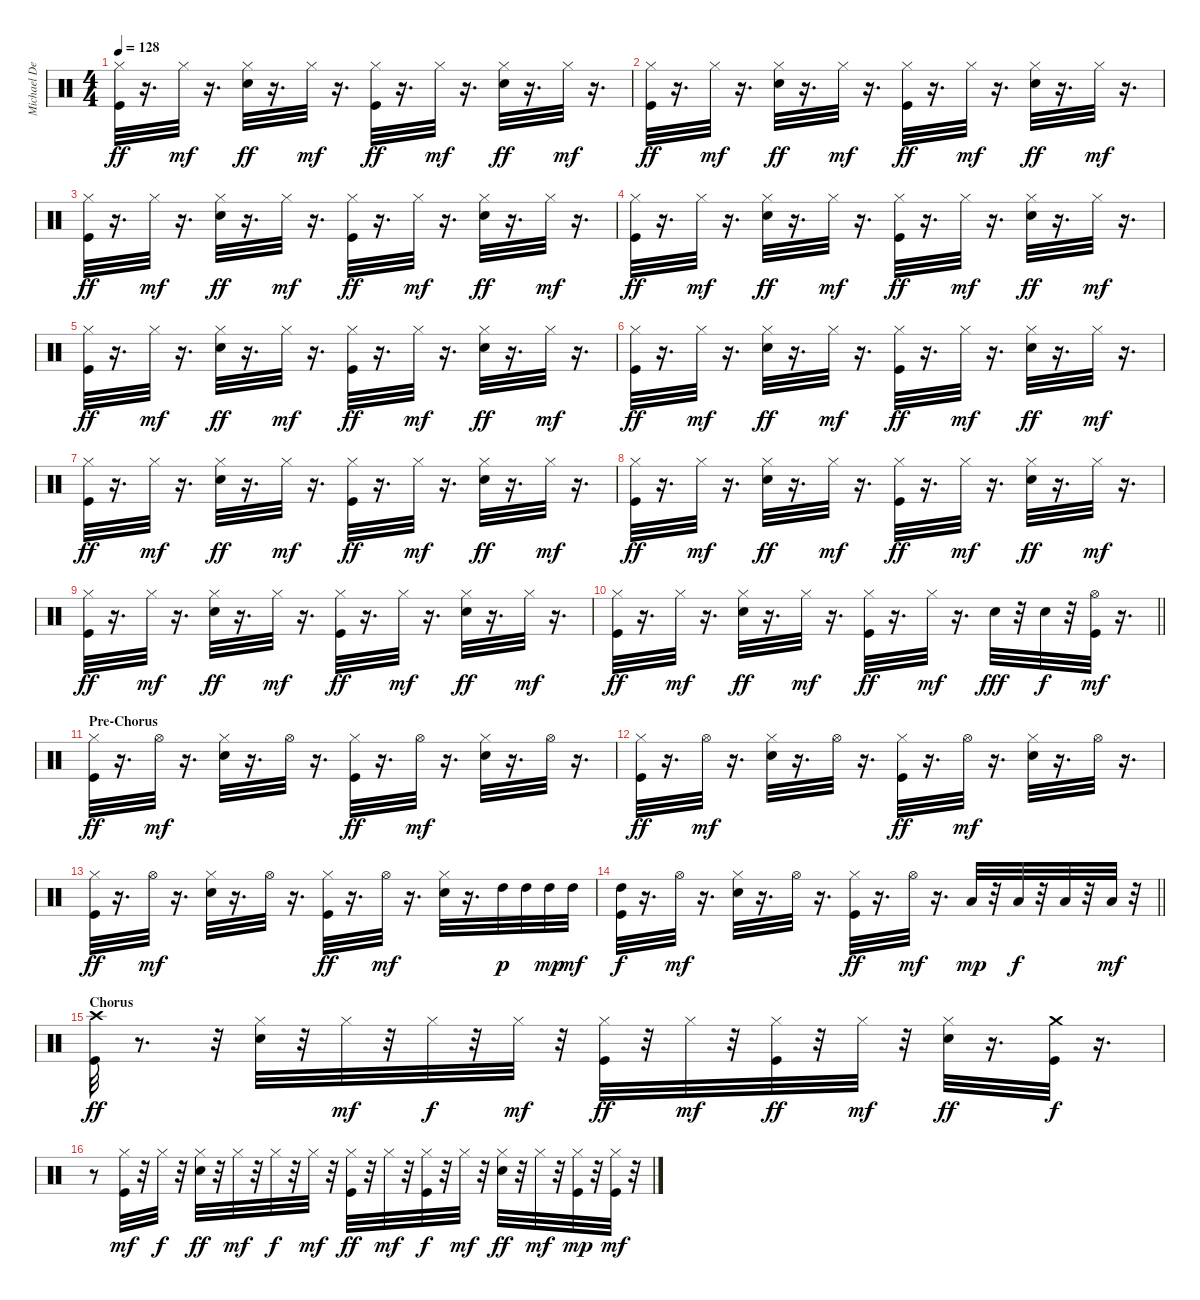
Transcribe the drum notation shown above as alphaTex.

\track ("Michael DeRosier" "Michael De") {instrument percussion}
\staff {score}
\articulation defaults
\ts (4 4)
\tempo 128
\clef neutral
\ks c
("Hi-Hat (closed)" "Kick (hit)").32{dy ff} r.16{d} "Hi-Hat (closed)".32{dy mf} r.16{d} ("Snare (hit) 2" "Hi-Hat (closed)").32{dy ff} r.16{d} "Hi-Hat (closed)".32{dy mf} r.16{d} ("Hi-Hat (closed)" "Kick (hit)").32{dy ff} r.16{d} "Hi-Hat (closed)".32{dy mf} r.16{d} ("Snare (hit) 2" "Hi-Hat (closed)").32{dy ff} r.16{d} "Hi-Hat (closed)".32{dy mf} r.16{d} |
("Hi-Hat (closed)" "Kick (hit)").32{dy ff} r.16{d} "Hi-Hat (closed)".32{dy mf} r.16{d} ("Snare (hit) 2" "Hi-Hat (closed)").32{dy ff} r.16{d} "Hi-Hat (closed)".32{dy mf} r.16{d} ("Hi-Hat (closed)" "Kick (hit)").32{dy ff} r.16{d} "Hi-Hat (closed)".32{dy mf} r.16{d} ("Snare (hit) 2" "Hi-Hat (closed)").32{dy ff} r.16{d} "Hi-Hat (closed)".32{dy mf} r.16{d} |
("Hi-Hat (closed)" "Kick (hit)").32{dy ff} r.16{d} "Hi-Hat (closed)".32{dy mf} r.16{d} ("Snare (hit) 2" "Hi-Hat (closed)").32{dy ff} r.16{d} "Hi-Hat (closed)".32{dy mf} r.16{d} ("Hi-Hat (closed)" "Kick (hit)").32{dy ff} r.16{d} "Hi-Hat (closed)".32{dy mf} r.16{d} ("Snare (hit) 2" "Hi-Hat (closed)").32{dy ff} r.16{d} "Hi-Hat (closed)".32{dy mf} r.16{d} |
("Hi-Hat (closed)" "Kick (hit)").32{dy ff} r.16{d} "Hi-Hat (closed)".32{dy mf} r.16{d} ("Snare (hit) 2" "Hi-Hat (closed)").32{dy ff} r.16{d} "Hi-Hat (closed)".32{dy mf} r.16{d} ("Hi-Hat (closed)" "Kick (hit)").32{dy ff} r.16{d} "Hi-Hat (closed)".32{dy mf} r.16{d} ("Snare (hit) 2" "Hi-Hat (closed)").32{dy ff} r.16{d} "Hi-Hat (closed)".32{dy mf} r.16{d} |
("Hi-Hat (closed)" "Kick (hit)").32{dy ff} r.16{d} "Hi-Hat (closed)".32{dy mf} r.16{d} ("Snare (hit) 2" "Hi-Hat (closed)").32{dy ff} r.16{d} "Hi-Hat (closed)".32{dy mf} r.16{d} ("Hi-Hat (closed)" "Kick (hit)").32{dy ff} r.16{d} "Hi-Hat (closed)".32{dy mf} r.16{d} ("Snare (hit) 2" "Hi-Hat (closed)").32{dy ff} r.16{d} "Hi-Hat (closed)".32{dy mf} r.16{d} |
("Hi-Hat (closed)" "Kick (hit)").32{dy ff} r.16{d} "Hi-Hat (closed)".32{dy mf} r.16{d} ("Snare (hit) 2" "Hi-Hat (closed)").32{dy ff} r.16{d} "Hi-Hat (closed)".32{dy mf} r.16{d} ("Hi-Hat (closed)" "Kick (hit)").32{dy ff} r.16{d} "Hi-Hat (closed)".32{dy mf} r.16{d} ("Snare (hit) 2" "Hi-Hat (closed)").32{dy ff} r.16{d} "Hi-Hat (closed)".32{dy mf} r.16{d} |
("Hi-Hat (closed)" "Kick (hit)").32{dy ff} r.16{d} "Hi-Hat (closed)".32{dy mf} r.16{d} ("Snare (hit) 2" "Hi-Hat (closed)").32{dy ff} r.16{d} "Hi-Hat (closed)".32{dy mf} r.16{d} ("Hi-Hat (closed)" "Kick (hit)").32{dy ff} r.16{d} "Hi-Hat (closed)".32{dy mf} r.16{d} ("Snare (hit) 2" "Hi-Hat (closed)").32{dy ff} r.16{d} "Hi-Hat (closed)".32{dy mf} r.16{d} |
("Hi-Hat (closed)" "Kick (hit)").32{dy ff} r.16{d} "Hi-Hat (closed)".32{dy mf} r.16{d} ("Snare (hit) 2" "Hi-Hat (closed)").32{dy ff} r.16{d} "Hi-Hat (closed)".32{dy mf} r.16{d} ("Hi-Hat (closed)" "Kick (hit)").32{dy ff} r.16{d} "Hi-Hat (closed)".32{dy mf} r.16{d} ("Snare (hit) 2" "Hi-Hat (closed)").32{dy ff} r.16{d} "Hi-Hat (closed)".32{dy mf} r.16{d} |
("Hi-Hat (closed)" "Kick (hit)").32{dy ff} r.16{d} "Hi-Hat (closed)".32{dy mf} r.16{d} ("Snare (hit) 2" "Hi-Hat (closed)").32{dy ff} r.16{d} "Hi-Hat (closed)".32{dy mf} r.16{d} ("Hi-Hat (closed)" "Kick (hit)").32{dy ff} r.16{d} "Hi-Hat (closed)".32{dy mf} r.16{d} ("Snare (hit) 2" "Hi-Hat (closed)").32{dy ff} r.16{d} "Hi-Hat (closed)".32{dy mf} r.16{d} |
\barLineRight lightlight
("Hi-Hat (closed)" "Kick (hit)").32{dy ff} r.16{d} "Hi-Hat (closed)".32{dy mf} r.16{d} ("Snare (hit) 2" "Hi-Hat (closed)").32{dy ff} r.16{d} "Hi-Hat (closed)".32{dy mf} r.16{d} ("Kick (hit)" "Hi-Hat (closed)").32{dy ff} r.16{d} "Hi-Hat (closed)".32{dy mf} r.16{d} "Snare (hit) 2".32{dy fff} r.32 "Snare (hit) 2".32{dy f} r.32 ("Hi-Hat (open)" "Kick (hit)").32{dy mf} r.16{d} |
\section ("" "Pre-Chorus")
("Hi-Hat (closed)" "Kick (hit)").32{dy ff} r.16{d} "Hi-Hat (open)".32{dy mf} r.16{d} ("Snare (hit) 2" "Hi-Hat (closed)").32 r.16{d} "Hi-Hat (open)".32 r.16{d} ("Hi-Hat (closed)" "Kick (hit)").32{dy ff} r.16{d} "Hi-Hat (open)".32{dy mf} r.16{d} ("Snare (hit) 2" "Hi-Hat (closed)").32 r.16{d} "Hi-Hat (open)".32 r.16{d} |
("Hi-Hat (closed)" "Kick (hit)").32{dy ff} r.16{d} "Hi-Hat (open)".32{dy mf} r.16{d} ("Snare (hit) 2" "Hi-Hat (closed)").32 r.16{d} "Hi-Hat (open)".32 r.16{d} ("Hi-Hat (closed)" "Kick (hit)").32{dy ff} r.16{d} "Hi-Hat (open)".32{dy mf} r.16{d} ("Snare (hit) 2" "Hi-Hat (closed)").32 r.16{d} "Hi-Hat (open)".32 r.16{d} |
("Hi-Hat (closed)" "Kick (hit)").32{dy ff} r.16{d} "Hi-Hat (open)".32{dy mf} r.16{d} ("Snare (hit) 2" "Hi-Hat (closed)").32 r.16{d} "Hi-Hat (open)".32 r.16{d} ("Hi-Hat (closed)" "Kick (hit)").32{dy ff} r.16{d} "Hi-Hat (open)".32{dy mf} r.16{d} ("Snare (hit) 2" "Hi-Hat (closed)").32 r.16{d} "High Tom (hit)".32{dy p} "High Tom (hit)".32 "High Tom (hit)".32{dy mp} "High Tom (hit)".32{dy mf} |
\barLineRight lightlight
("Kick (hit)" "High Tom (hit)").32{dy f} r.16{d} "Hi-Hat (open)".32{dy mf} r.16{d} ("Snare (hit) 2" "Hi-Hat (closed)").32 r.16{d} "Hi-Hat (open)".32 r.16{d} ("Hi-Hat (closed)" "Kick (hit)").32{dy ff} r.16{d} "Hi-Hat (open)".32{dy mf} r.16{d} "Low Tom (hit)".32{dy mp} r.32 "Low Tom (hit)".32{dy f} r.32 "Low Floor Tom (hit)".32 r.32 "Low Floor Tom (hit)".32{dy mf} r.32 |
\section ("" "Chorus")
("Kick (hit)" "Crash high (hit)").32{dy ff} r.8{d} r.32 ("Snare (hit) 2" "Hi-Hat (closed)").32 r.32 "Hi-Hat (closed)".32{dy mf} r.32 "Hi-Hat (closed)".32{dy f} r.32 "Hi-Hat (closed)".32{dy mf} r.32 ("Kick (hit)" "Hi-Hat (closed)").32{dy ff} r.32 "Hi-Hat (closed)".32{dy mf} r.32 ("Hi-Hat (closed)" "Kick (hit)").32{dy ff} r.32 "Hi-Hat (closed)".32{dy mf} r.32 ("Snare (hit) 2" "Hi-Hat (closed)").32{dy ff} r.16{d} ("Kick (hit)" "Crash medium (hit)").32{dy f} r.16{d} |
r.8 ("Hi-Hat (closed)" "Kick (hit)").32{dy mf} r.32 "Hi-Hat (closed)".32{dy f} r.32 ("Snare (hit) 2" "Hi-Hat (closed)").32{dy ff} r.32 "Hi-Hat (closed)".32{dy mf} r.32 "Hi-Hat (closed)".32{dy f} r.32 "Hi-Hat (closed)".32{dy mf} r.32 ("Hi-Hat (closed)" "Kick (hit)").32{dy ff} r.32 "Hi-Hat (closed)".32{dy mf} r.32 ("Hi-Hat (closed)" "Kick (hit)").32{dy f} r.32 "Hi-Hat (closed)".32{dy mf} r.32 ("Snare (hit) 2" "Hi-Hat (closed)").32{dy ff} r.32 "Hi-Hat (closed)".32{dy mf} r.32 ("Hi-Hat (closed)" "Kick (hit)").32{dy mp} r.32 ("Hi-Hat (closed)" "Kick (hit)").32{dy mf} r.32
